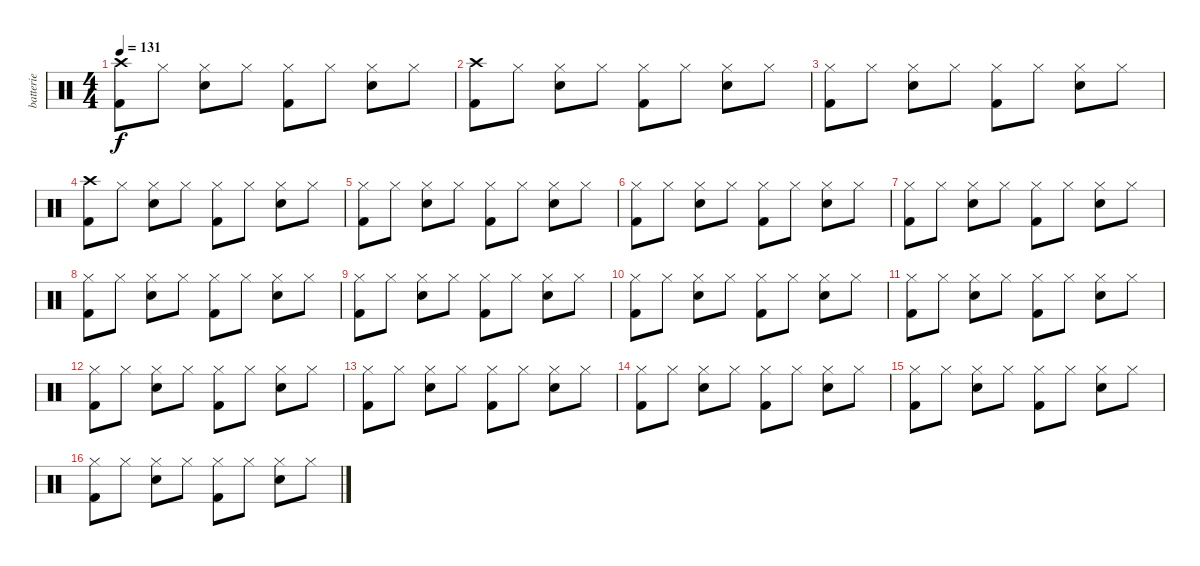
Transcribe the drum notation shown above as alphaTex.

\track ("batterie" "batterie") {instrument percussion}
\staff {score}
\articulation defaults
\ts (4 4)
\tempo 131
\clef neutral
\ks c
("Crash high (hit)" "Kick (hit) 2").8{dy f} "Hi-Hat (closed)".8 ("Hi-Hat (closed)" "Electric Snare (hit)").8 "Hi-Hat (closed)".8 ("Hi-Hat (closed)" "Kick (hit) 2").8 "Hi-Hat (closed)".8 ("Hi-Hat (closed)" "Electric Snare (hit)").8 "Hi-Hat (closed)".8 |
("Crash high (hit)" "Kick (hit) 2").8 "Hi-Hat (closed)".8 ("Hi-Hat (closed)" "Electric Snare (hit)").8 "Hi-Hat (closed)".8 ("Hi-Hat (closed)" "Kick (hit) 2").8 "Hi-Hat (closed)".8 ("Hi-Hat (closed)" "Electric Snare (hit)").8 "Hi-Hat (closed)".8 |
("Hi-Hat (closed)" "Kick (hit) 2").8 "Hi-Hat (closed)".8 ("Hi-Hat (closed)" "Electric Snare (hit)").8 "Hi-Hat (closed)".8 ("Hi-Hat (closed)" "Kick (hit) 2").8 "Hi-Hat (closed)".8 ("Hi-Hat (closed)" "Electric Snare (hit)").8 "Hi-Hat (closed)".8 |
("Crash high (hit)" "Kick (hit) 2").8 "Hi-Hat (closed)".8 ("Hi-Hat (closed)" "Electric Snare (hit)").8 "Hi-Hat (closed)".8 ("Hi-Hat (closed)" "Kick (hit) 2").8 "Hi-Hat (closed)".8 ("Hi-Hat (closed)" "Electric Snare (hit)").8 "Hi-Hat (closed)".8 |
("Hi-Hat (closed)" "Kick (hit) 2").8 "Hi-Hat (closed)".8 ("Hi-Hat (closed)" "Electric Snare (hit)").8 "Hi-Hat (closed)".8 ("Hi-Hat (closed)" "Kick (hit) 2").8 "Hi-Hat (closed)".8 ("Hi-Hat (closed)" "Electric Snare (hit)").8 "Hi-Hat (closed)".8 |
("Hi-Hat (closed)" "Kick (hit) 2").8 "Hi-Hat (closed)".8 ("Hi-Hat (closed)" "Electric Snare (hit)").8 "Hi-Hat (closed)".8 ("Hi-Hat (closed)" "Kick (hit) 2").8 "Hi-Hat (closed)".8 ("Hi-Hat (closed)" "Electric Snare (hit)").8 "Hi-Hat (closed)".8 |
("Hi-Hat (closed)" "Kick (hit) 2").8 "Hi-Hat (closed)".8 ("Hi-Hat (closed)" "Electric Snare (hit)").8 "Hi-Hat (closed)".8 ("Hi-Hat (closed)" "Kick (hit) 2").8 "Hi-Hat (closed)".8 ("Hi-Hat (closed)" "Electric Snare (hit)").8 "Hi-Hat (closed)".8 |
("Hi-Hat (closed)" "Kick (hit) 2").8 "Hi-Hat (closed)".8 ("Hi-Hat (closed)" "Electric Snare (hit)").8 "Hi-Hat (closed)".8 ("Hi-Hat (closed)" "Kick (hit) 2").8 "Hi-Hat (closed)".8 ("Hi-Hat (closed)" "Electric Snare (hit)").8 "Hi-Hat (closed)".8 |
("Hi-Hat (closed)" "Kick (hit) 2").8 "Hi-Hat (closed)".8 ("Hi-Hat (closed)" "Electric Snare (hit)").8 "Hi-Hat (closed)".8 ("Hi-Hat (closed)" "Kick (hit) 2").8 "Hi-Hat (closed)".8 ("Hi-Hat (closed)" "Electric Snare (hit)").8 "Hi-Hat (closed)".8 |
("Hi-Hat (closed)" "Kick (hit) 2").8 "Hi-Hat (closed)".8 ("Hi-Hat (closed)" "Electric Snare (hit)").8 "Hi-Hat (closed)".8 ("Hi-Hat (closed)" "Kick (hit) 2").8 "Hi-Hat (closed)".8 ("Hi-Hat (closed)" "Electric Snare (hit)").8 "Hi-Hat (closed)".8 |
("Hi-Hat (closed)" "Kick (hit) 2").8 "Hi-Hat (closed)".8 ("Hi-Hat (closed)" "Electric Snare (hit)").8 "Hi-Hat (closed)".8 ("Hi-Hat (closed)" "Kick (hit) 2").8 "Hi-Hat (closed)".8 ("Hi-Hat (closed)" "Electric Snare (hit)").8 "Hi-Hat (closed)".8 |
("Hi-Hat (closed)" "Kick (hit) 2").8 "Hi-Hat (closed)".8 ("Hi-Hat (closed)" "Electric Snare (hit)").8 "Hi-Hat (closed)".8 ("Hi-Hat (closed)" "Kick (hit) 2").8 "Hi-Hat (closed)".8 ("Hi-Hat (closed)" "Electric Snare (hit)").8 "Hi-Hat (closed)".8 |
("Hi-Hat (closed)" "Kick (hit) 2").8 "Hi-Hat (closed)".8 ("Hi-Hat (closed)" "Electric Snare (hit)").8 "Hi-Hat (closed)".8 ("Hi-Hat (closed)" "Kick (hit) 2").8 "Hi-Hat (closed)".8 ("Hi-Hat (closed)" "Electric Snare (hit)").8 "Hi-Hat (closed)".8 |
("Hi-Hat (closed)" "Kick (hit) 2").8 "Hi-Hat (closed)".8 ("Hi-Hat (closed)" "Electric Snare (hit)").8 "Hi-Hat (closed)".8 ("Hi-Hat (closed)" "Kick (hit) 2").8 "Hi-Hat (closed)".8 ("Hi-Hat (closed)" "Electric Snare (hit)").8 "Hi-Hat (closed)".8 |
("Hi-Hat (closed)" "Kick (hit) 2").8 "Hi-Hat (closed)".8 ("Hi-Hat (closed)" "Electric Snare (hit)").8 "Hi-Hat (closed)".8 ("Hi-Hat (closed)" "Kick (hit) 2").8 "Hi-Hat (closed)".8 ("Hi-Hat (closed)" "Electric Snare (hit)").8 "Hi-Hat (closed)".8 |
("Hi-Hat (closed)" "Kick (hit) 2").8 "Hi-Hat (closed)".8 ("Hi-Hat (closed)" "Electric Snare (hit)").8 "Hi-Hat (closed)".8 ("Hi-Hat (closed)" "Kick (hit) 2").8 "Hi-Hat (closed)".8 ("Hi-Hat (closed)" "Electric Snare (hit)").8 "Hi-Hat (closed)".8
